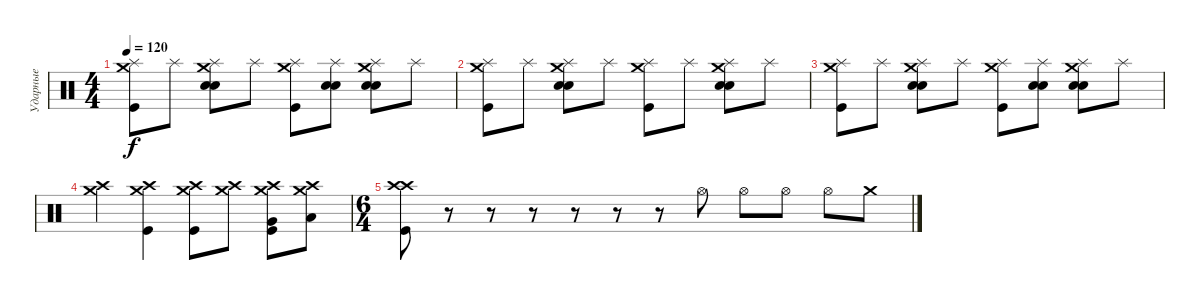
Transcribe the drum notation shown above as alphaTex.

\track ("Ударные" "Ударные") {instrument percussion}
\staff {score}
\articulation defaults
\ts (4 4)
\tempo 120
\clef neutral
\ks c
("Crash medium (hit)" "Splash (hit)" "Kick (hit)").8{dy f} "Splash (hit)".8 ("Crash medium (hit)" "Splash (hit)" "Electric Snare (hit)" "Electric Snare (hit)").8 "Splash (hit)".8 ("Crash medium (hit)" "Splash (hit)" "Kick (hit)").8 ("Splash (hit)" "Snare (hit) 2" "Snare (hit) 2").8 ("Crash medium (hit)" "Splash (hit)" "Electric Snare (hit)" "Electric Snare (hit)").8 "Splash (hit)".8 |
("Crash medium (hit)" "Splash (hit)" "Kick (hit)").8 "Splash (hit)".8 ("Crash medium (hit)" "Splash (hit)" "Electric Snare (hit)" "Electric Snare (hit)").8 "Splash (hit)".8 ("Crash medium (hit)" "Splash (hit)" "Kick (hit)").8 "Splash (hit)".8 ("Crash medium (hit)" "Splash (hit)" "Electric Snare (hit)" "Electric Snare (hit)").8 "Splash (hit)".8 |
("Crash medium (hit)" "Splash (hit)" "Kick (hit)").8 "Splash (hit)".8 ("Crash medium (hit)" "Splash (hit)" "Electric Snare (hit)" "Electric Snare (hit)").8 "Splash (hit)".8 ("Crash medium (hit)" "Splash (hit)" "Kick (hit)").8 ("Splash (hit)" "Snare (hit) 2" "Snare (hit) 2").8 ("Crash medium (hit)" "Splash (hit)" "Electric Snare (hit)" "Electric Snare (hit)").8 "Splash (hit)".8 |
("Crash high (hit)" "Crash medium (hit)").4 ("Crash medium (hit)" "Crash high (hit)" "Kick (hit)").4 ("Crash medium (hit)" "Crash high (hit)" "Kick (hit)").8 ("Crash medium (hit)" "Crash high (hit)").8 ("Crash medium (hit)" "Crash high (hit)" "Very Low Tom (hit)" "Kick (hit)").8 ("Crash medium (hit)" "Crash high (hit)" "Low Floor Tom (hit)").8 |
\ts (6 4)
("Crash high (hit)" "Crash high (hit)" "Kick (hit)").8 r.8 r.8 r.8 r.8 r.8 r.8 "Hi-Hat (open)".8 "Hi-Hat (open)".8 "Hi-Hat (open)".8 "Hi-Hat (open)".8 "Crash medium (hit)".8
